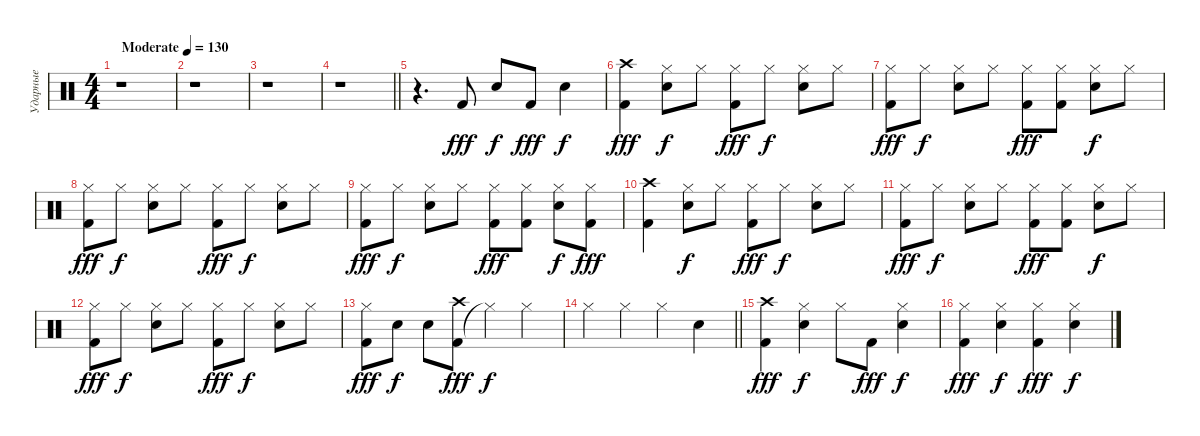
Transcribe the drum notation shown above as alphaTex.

\track ("Ударные" "Ударные") {instrument percussion}
\staff {score}
\articulation defaults
\ts (4 4)
\tempo (130 "Moderate")
\clef neutral
\ks c
r.1{dy fff} |
r.1 |
r.1 |
\barLineRight lightlight
r.1 |
r.4{d} "Kick (hit) 2".8 "Snare (hit) 2".8{dy f} "Kick (hit) 2".8{dy fff} "Snare (hit) 2".4{dy f} |
("Kick (hit) 2" "Crash high (hit)").4{dy fff} ("Snare (hit) 2" "Hi-Hat (closed)").8{dy f} "Hi-Hat (closed)".8 ("Kick (hit) 2" "Hi-Hat (closed)").8{dy fff} "Hi-Hat (closed)".8{dy f} ("Snare (hit) 2" "Hi-Hat (closed)").8 "Hi-Hat (closed)".8 |
("Kick (hit) 2" "Hi-Hat (closed)").8{dy fff} "Hi-Hat (closed)".8{dy f} ("Snare (hit) 2" "Hi-Hat (closed)").8 "Hi-Hat (closed)".8 ("Kick (hit) 2" "Hi-Hat (closed)").8{dy fff} ("Kick (hit) 2" "Hi-Hat (closed)").8 ("Snare (hit) 2" "Hi-Hat (closed)").8{dy f} "Hi-Hat (closed)".8 |
("Kick (hit) 2" "Hi-Hat (closed)").8{dy fff} "Hi-Hat (closed)".8{dy f} ("Snare (hit) 2" "Hi-Hat (closed)").8 "Hi-Hat (closed)".8 ("Kick (hit) 2" "Hi-Hat (closed)").8{dy fff} "Hi-Hat (closed)".8{dy f} ("Snare (hit) 2" "Hi-Hat (closed)").8 "Hi-Hat (closed)".8 |
("Kick (hit) 2" "Hi-Hat (closed)").8{dy fff} "Hi-Hat (closed)".8{dy f} ("Snare (hit) 2" "Hi-Hat (closed)").8 "Hi-Hat (closed)".8 ("Kick (hit) 2" "Hi-Hat (closed)").8{dy fff} ("Kick (hit) 2" "Hi-Hat (closed)").8 ("Snare (hit) 2" "Hi-Hat (closed)").8{dy f} ("Kick (hit) 2" "Hi-Hat (closed)").8{dy fff} |
("Kick (hit) 2" "Crash high (hit)").4 ("Snare (hit) 2" "Hi-Hat (closed)").8{dy f} "Hi-Hat (closed)".8 ("Kick (hit) 2" "Hi-Hat (closed)").8{dy fff} "Hi-Hat (closed)".8{dy f} ("Snare (hit) 2" "Hi-Hat (closed)").8 "Hi-Hat (closed)".8 |
("Kick (hit) 2" "Hi-Hat (closed)").8{dy fff} "Hi-Hat (closed)".8{dy f} ("Snare (hit) 2" "Hi-Hat (closed)").8 "Hi-Hat (closed)".8 ("Kick (hit) 2" "Hi-Hat (closed)").8{dy fff} ("Kick (hit) 2" "Hi-Hat (closed)").8 ("Snare (hit) 2" "Hi-Hat (closed)").8{dy f} "Hi-Hat (closed)".8 |
("Kick (hit) 2" "Hi-Hat (closed)").8{dy fff} "Hi-Hat (closed)".8{dy f} ("Snare (hit) 2" "Hi-Hat (closed)").8 "Hi-Hat (closed)".8 ("Kick (hit) 2" "Hi-Hat (closed)").8{dy fff} "Hi-Hat (closed)".8{dy f} ("Snare (hit) 2" "Hi-Hat (closed)").8 "Hi-Hat (closed)".8 |
("Kick (hit) 2" "Hi-Hat (closed)").8{dy fff} "Snare (hit) 2".8{dy f} "Snare (hit) 2".8 ("Kick (hit) 2" "Crash high (hit)").8{dy fff} "Hi-Hat (closed)"{t}.4{dy f} "Hi-Hat (closed)".4 |
\barLineRight lightlight "Hi-Hat (closed)".4 "Hi-Hat (closed)".4 "Hi-Hat (closed)".4 "Snare (hit) 2".4
|
("Kick (hit) 2" "Crash high (hit)").4{dy fff} ("Snare (hit) 2" "Hi-Hat (closed)").4{dy f} "Hi-Hat (closed)".8 "Kick (hit) 2".8{dy fff} ("Snare (hit) 2" "Hi-Hat (closed)").4{dy f} |
("Kick (hit) 2" "Hi-Hat (closed)").4{dy fff} ("Snare (hit) 2" "Hi-Hat (closed)").4{dy f} ("Kick (hit) 2" "Hi-Hat (closed)").4{dy fff} ("Snare (hit) 2" "Hi-Hat (closed)").4{dy f}
